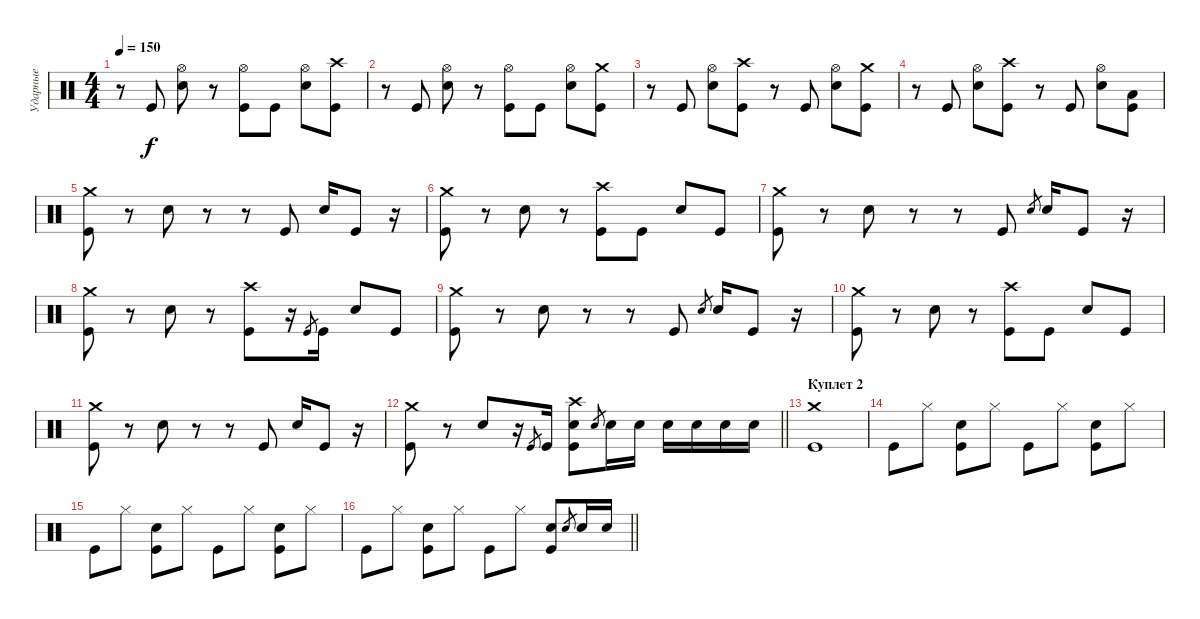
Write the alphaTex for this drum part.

\track ("Ударные" "Ударные") {instrument percussion}
\staff {score}
\articulation defaults
\ts (4 4)
\tempo 150
\clef neutral
\ks c
r.8{dy f} "Kick (hit)".8 ("Hi-Hat (open)" "Electric Snare (hit)").8 r.8 ("Hi-Hat (open)" "Kick (hit)").8 "Kick (hit)".8 ("Hi-Hat (open)" "Electric Snare (hit)").8 ("Crash high (hit)" "Kick (hit)").8 |
r.8 "Kick (hit)".8 ("Hi-Hat (open)" "Electric Snare (hit)").8 r.8 ("Hi-Hat (open)" "Kick (hit)").8 "Kick (hit)".8 ("Hi-Hat (open)" "Electric Snare (hit)").8 ("Crash medium (hit)" "Kick (hit)").8 |
r.8 "Kick (hit)".8 ("Hi-Hat (open)" "Electric Snare (hit)").8 ("Crash high (hit)" "Kick (hit)").8 r.8 "Kick (hit)".8 ("Hi-Hat (open)" "Electric Snare (hit)").8 ("Crash medium (hit)" "Kick (hit)").8 |
r.8 "Kick (hit)".8 ("Hi-Hat (open)" "Electric Snare (hit)").8 ("Crash high (hit)" "Kick (hit)").8 r.8 "Kick (hit)".8 ("Hi-Hat (open)" "Electric Snare (hit)").8 ("Low Floor Tom (hit)" "Kick (hit)").8 |
("Crash medium (hit)" "Kick (hit)").8 r.8 "Electric Snare (hit)".8 r.8 r.8 "Kick (hit)".8 "Electric Snare (hit)".16 "Kick (hit)".8 r.16 |
("Crash medium (hit)" "Kick (hit)").8 r.8 "Electric Snare (hit)".8 r.8 ("Crash high (hit)" "Kick (hit)").8 "Kick (hit)".8 "Electric Snare (hit)".8 "Kick (hit)".8 |
("Crash medium (hit)" "Kick (hit)").8 r.8 "Electric Snare (hit)".8 r.8 r.8 "Kick (hit)".8 "Electric Snare (hit)".8{gr} "Electric Snare (hit)".16 "Kick (hit)".8 r.16 |
("Crash medium (hit)" "Kick (hit)").8 r.8 "Electric Snare (hit)".8 r.8 ("Crash high (hit)" "Kick (hit)").8 r.16 "Kick (hit)".8{gr} "Kick (hit)".16 "Electric Snare (hit)".8 "Kick (hit)".8 |
("Crash medium (hit)" "Kick (hit)").8 r.8 "Electric Snare (hit)".8 r.8 r.8 "Kick (hit)".8 "Electric Snare (hit)".8{gr} "Electric Snare (hit)".16 "Kick (hit)".8 r.16 |
("Crash medium (hit)" "Kick (hit)").8 r.8 "Electric Snare (hit)".8 r.8 ("Crash high (hit)" "Kick (hit)").8 "Kick (hit)".8 "Electric Snare (hit)".8 "Kick (hit)".8 |
("Crash medium (hit)" "Kick (hit)").8 r.8 "Electric Snare (hit)".8 r.8 r.8 "Kick (hit)".8 "Electric Snare (hit)".16 "Kick (hit)".8 r.16 |
\barLineRight lightlight
("Crash medium (hit)" "Kick (hit)").8 r.8 "Electric Snare (hit)".8 r.16 "Kick (hit)".8{gr} "Kick (hit)".16 ("Crash high (hit)" "Electric Snare (hit)" "Kick (hit)").8 "Electric Snare (hit)".8{gr} "Electric Snare (hit)".16 "Electric Snare (hit)".16 "Electric Snare (hit)".16 "Electric Snare (hit)".16 "Electric Snare (hit)".16 "Electric Snare (hit)".16 |
\section ("" "Куплет 2")
("Crash medium (hit)" "Kick (hit)").1 |
"Kick (hit)".8 "Hi-Hat (closed)".8 ("Electric Snare (hit)" "Kick (hit)").8 "Hi-Hat (closed)".8 "Kick (hit)".8 "Hi-Hat (closed)".8 ("Electric Snare (hit)" "Kick (hit)").8 "Hi-Hat (closed)".8 |
"Kick (hit)".8 "Hi-Hat (closed)".8 ("Electric Snare (hit)" "Kick (hit)").8 "Hi-Hat (closed)".8 "Kick (hit)".8 "Hi-Hat (closed)".8 ("Electric Snare (hit)" "Kick (hit)").8 "Hi-Hat (closed)".8 |
\barLineRight lightlight "Kick (hit)".8 "Hi-Hat (closed)".8
("Electric Snare (hit)" "Kick (hit)").8 "Hi-Hat (closed)".8 "Kick (hit)".8 "Hi-Hat (closed)".8 ("Electric Snare (hit)" "Kick (hit)").8 "Electric Snare (hit)".8{gr} "Electric Snare (hit)".16 "Electric Snare (hit)".16
